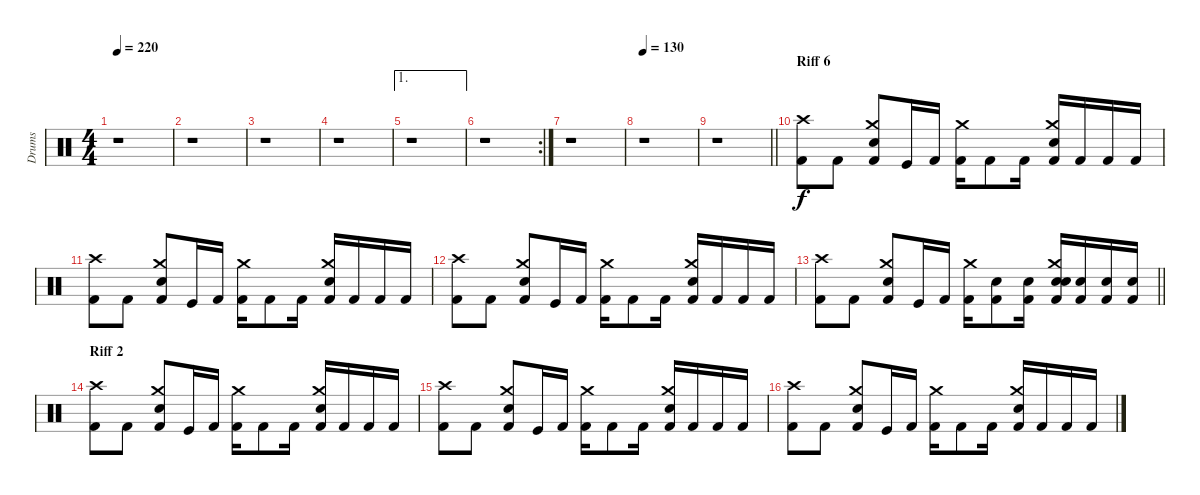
\track ("Drums" "Drums") {instrument percussion}
\staff {score}
\articulation defaults
\ts (4 4)
\tempo 220
\clef neutral
\ks c
r.1{dy f} |
r.1 |
r.1 |
r.1 |
\ae 1
r.1 |
\rc 2
r.1 |
r.1 |
\tempo 130
r.1 |
\barLineRight lightlight
r.1 |
\section ("" "Riff 6")
("Crash high (hit)" "Kick (hit) 2").8 "Kick (hit) 2".8 ("Crash medium (hit)" "Electric Snare (hit)" "Kick (hit) 2").8 "Kick (hit)".16 "Kick (hit) 2".16 ("Crash medium (hit)" "Kick (hit) 2").16 "Kick (hit) 2".8 "Kick (hit) 2".16 ("Crash medium (hit)" "Electric Snare (hit)" "Kick (hit) 2").16 "Kick (hit) 2".16 "Kick (hit) 2".16 "Kick (hit) 2".16 |
("Crash high (hit)" "Kick (hit) 2").8 "Kick (hit) 2".8 ("Crash medium (hit)" "Electric Snare (hit)" "Kick (hit) 2").8 "Kick (hit)".16 "Kick (hit) 2".16 ("Crash medium (hit)" "Kick (hit) 2").16 "Kick (hit) 2".8 "Kick (hit) 2".16 ("Crash medium (hit)" "Electric Snare (hit)" "Kick (hit) 2").16 "Kick (hit) 2".16 "Kick (hit) 2".16 "Kick (hit) 2".16 |
("Crash high (hit)" "Kick (hit) 2").8 "Kick (hit) 2".8 ("Crash medium (hit)" "Electric Snare (hit)" "Kick (hit) 2").8 "Kick (hit)".16 "Kick (hit) 2".16 ("Crash medium (hit)" "Kick (hit) 2").16 "Kick (hit) 2".8 "Kick (hit) 2".16 ("Crash medium (hit)" "Electric Snare (hit)" "Kick (hit) 2").16 "Kick (hit) 2".16 "Kick (hit) 2".16 "Kick (hit) 2".16 |
\barLineRight lightlight
("Crash high (hit)" "Kick (hit) 2").8 "Kick (hit) 2".8 ("Crash medium (hit)" "Electric Snare (hit)" "Kick (hit) 2").8 "Kick (hit)".16 "Kick (hit) 2".16 ("Crash medium (hit)" "Kick (hit) 2").16 ("Electric Snare (hit)" "Kick (hit) 2").8 ("Electric Snare (hit)" "Kick (hit) 2").16 ("Crash medium (hit)" "Electric Snare (hit)" "Electric Snare (hit)" "Kick (hit) 2").16 ("Electric Snare (hit)" "Kick (hit) 2").16 ("Electric Snare (hit)" "Kick (hit) 2").16 ("Electric Snare (hit)" "Kick (hit) 2").16 |
\section ("" "Riff 2")
("Crash high (hit)" "Kick (hit) 2").8 "Kick (hit) 2".8 ("Crash medium (hit)" "Electric Snare (hit)" "Kick (hit) 2").8 "Kick (hit)".16 "Kick (hit) 2".16 ("Crash medium (hit)" "Kick (hit) 2").16 "Kick (hit) 2".8 "Kick (hit) 2".16 ("Crash medium (hit)" "Electric Snare (hit)" "Kick (hit) 2").16 "Kick (hit) 2".16 "Kick (hit) 2".16 "Kick (hit) 2".16 |
("Crash high (hit)" "Kick (hit) 2").8 "Kick (hit) 2".8 ("Crash medium (hit)" "Electric Snare (hit)" "Kick (hit) 2").8 "Kick (hit)".16 "Kick (hit) 2".16 ("Crash medium (hit)" "Kick (hit) 2").16 "Kick (hit) 2".8 "Kick (hit) 2".16 ("Crash medium (hit)" "Electric Snare (hit)" "Kick (hit) 2").16 "Kick (hit) 2".16 "Kick (hit) 2".16 "Kick (hit) 2".16 |
("Crash high (hit)" "Kick (hit) 2").8 "Kick (hit) 2".8 ("Crash medium (hit)" "Electric Snare (hit)" "Kick (hit) 2").8 "Kick (hit)".16 "Kick (hit) 2".16 ("Crash medium (hit)" "Kick (hit) 2").16 "Kick (hit) 2".8 "Kick (hit) 2".16 ("Crash medium (hit)" "Electric Snare (hit)" "Kick (hit) 2").16 "Kick (hit) 2".16 "Kick (hit) 2".16 "Kick (hit) 2".16
